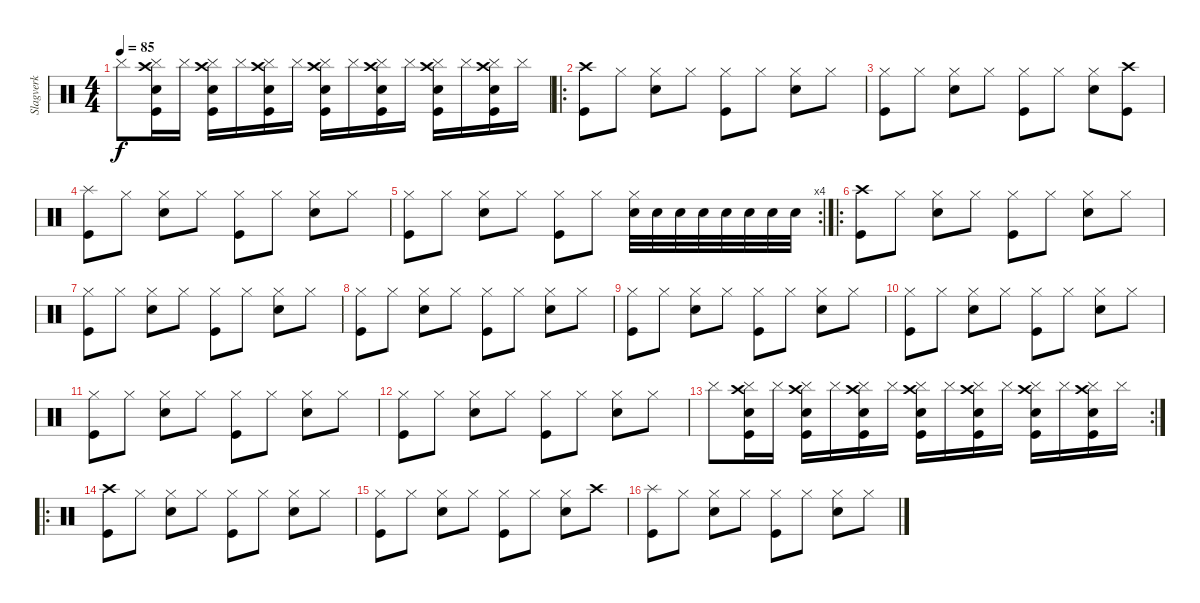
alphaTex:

\track ("Slagverk" "Slagverk") {instrument percussion}
\staff {score}
\articulation defaults
\ts (4 4)
\tempo 85
\clef neutral
\ks c "Cymbal (hit)".8{dy f}
("Cymbal (hit)" "Crash high (hit)" "Electric Snare (hit)" "Kick (hit)").16 "Cymbal (hit)".16 ("Cymbal (hit)" "Crash high (hit)" "Electric Snare (hit)" "Kick (hit)").16 "Cymbal (hit)".16 ("Cymbal (hit)" "Crash high (hit)" "Electric Snare (hit)" "Kick (hit)").16 "Cymbal (hit)".16 ("Cymbal (hit)" "Crash high (hit)" "Electric Snare (hit)" "Kick (hit)").16 "Cymbal (hit)".16 ("Cymbal (hit)" "Crash high (hit)" "Electric Snare (hit)" "Kick (hit)").16 "Cymbal (hit)".16 ("Cymbal (hit)" "Crash high (hit)" "Electric Snare (hit)" "Kick (hit)").16 "Cymbal (hit)".16 ("Cymbal (hit)" "Crash high (hit)" "Electric Snare (hit)" "Kick (hit)").16 "Cymbal (hit)".16 |
\ro
("Crash high (hit)" "Kick (hit)").8 "Hi-Hat (closed)".8 ("Hi-Hat (closed)" "Electric Snare (hit)").8 "Hi-Hat (closed)".8 ("Hi-Hat (closed)" "Kick (hit)").8 "Hi-Hat (closed)".8 ("Hi-Hat (closed)" "Electric Snare (hit)").8 "Hi-Hat (closed)".8 |
("Hi-Hat (closed)" "Kick (hit)").8 "Hi-Hat (closed)".8 ("Hi-Hat (closed)" "Electric Snare (hit)").8 "Hi-Hat (closed)".8 ("Hi-Hat (closed)" "Kick (hit)").8 "Hi-Hat (closed)".8 ("Hi-Hat (closed)" "Electric Snare (hit)").8 ("Crash high (hit)" "Kick (hit)").8 |
("Splash (hit)" "Kick (hit)").8 "Hi-Hat (closed)".8 ("Hi-Hat (closed)" "Electric Snare (hit)").8 "Hi-Hat (closed)".8 ("Hi-Hat (closed)" "Kick (hit)").8 "Hi-Hat (closed)".8 ("Hi-Hat (closed)" "Electric Snare (hit)").8 "Hi-Hat (closed)".8 |
\rc 4
("Hi-Hat (closed)" "Kick (hit)").8 "Hi-Hat (closed)".8 ("Hi-Hat (closed)" "Electric Snare (hit)").8 "Hi-Hat (closed)".8 ("Hi-Hat (closed)" "Kick (hit)").8 "Hi-Hat (closed)".8 ("Hi-Hat (closed)" "Electric Snare (hit)").32 "Electric Snare (hit)".32 "Snare (hit) 2".32 "Electric Snare (hit)".32 "Electric Snare (hit)".32 "Electric Snare (hit)".32 "Electric Snare (hit)".32 "Snare (hit) 2".32 |
\ro
("Crash high (hit)" "Kick (hit)").8 "Hi-Hat (closed)".8 ("Hi-Hat (closed)" "Electric Snare (hit)").8 "Hi-Hat (closed)".8 ("Hi-Hat (closed)" "Kick (hit)").8 "Hi-Hat (closed)".8 ("Hi-Hat (closed)" "Electric Snare (hit)").8 "Hi-Hat (closed)".8 |
("Hi-Hat (closed)" "Kick (hit)").8 "Hi-Hat (closed)".8 ("Hi-Hat (closed)" "Electric Snare (hit)").8 "Hi-Hat (closed)".8 ("Hi-Hat (closed)" "Kick (hit)").8 "Hi-Hat (closed)".8 ("Hi-Hat (closed)" "Electric Snare (hit)").8 "Hi-Hat (closed)".8 |
("Hi-Hat (closed)" "Kick (hit)").8 "Hi-Hat (closed)".8 ("Hi-Hat (closed)" "Electric Snare (hit)").8 "Hi-Hat (closed)".8 ("Hi-Hat (closed)" "Kick (hit)").8 "Hi-Hat (closed)".8 ("Hi-Hat (closed)" "Electric Snare (hit)").8 "Hi-Hat (closed)".8 |
("Hi-Hat (closed)" "Kick (hit)").8 "Hi-Hat (closed)".8 ("Hi-Hat (closed)" "Electric Snare (hit)").8 "Hi-Hat (closed)".8 ("Hi-Hat (closed)" "Kick (hit)").8 "Hi-Hat (closed)".8 ("Hi-Hat (closed)" "Electric Snare (hit)").8 "Hi-Hat (closed)".8 |
("Hi-Hat (closed)" "Kick (hit)").8 "Hi-Hat (closed)".8 ("Hi-Hat (closed)" "Electric Snare (hit)").8 "Hi-Hat (closed)".8 ("Hi-Hat (closed)" "Kick (hit)").8 "Hi-Hat (closed)".8 ("Hi-Hat (closed)" "Electric Snare (hit)").8 "Hi-Hat (closed)".8 |
("Hi-Hat (closed)" "Kick (hit)").8 "Hi-Hat (closed)".8 ("Hi-Hat (closed)" "Electric Snare (hit)").8 "Hi-Hat (closed)".8 ("Hi-Hat (closed)" "Kick (hit)").8 "Hi-Hat (closed)".8 ("Hi-Hat (closed)" "Electric Snare (hit)").8 "Hi-Hat (closed)".8 |
("Hi-Hat (closed)" "Kick (hit)").8 "Hi-Hat (closed)".8 ("Hi-Hat (closed)" "Electric Snare (hit)").8 "Hi-Hat (closed)".8 ("Hi-Hat (closed)" "Kick (hit)").8 "Hi-Hat (closed)".8 ("Hi-Hat (closed)" "Electric Snare (hit)").8 "Hi-Hat (closed)".8 |
\rc 2 "Cymbal (hit)".8
("Cymbal (hit)" "Crash high (hit)" "Electric Snare (hit)" "Kick (hit)").16 "Cymbal (hit)".16 ("Cymbal (hit)" "Crash high (hit)" "Electric Snare (hit)" "Kick (hit)").16 "Cymbal (hit)".16 ("Cymbal (hit)" "Crash high (hit)" "Electric Snare (hit)" "Kick (hit)").16 "Cymbal (hit)".16 ("Cymbal (hit)" "Crash high (hit)" "Electric Snare (hit)" "Kick (hit)").16 "Cymbal (hit)".16 ("Cymbal (hit)" "Crash high (hit)" "Electric Snare (hit)" "Kick (hit)").16 "Cymbal (hit)".16 ("Cymbal (hit)" "Crash high (hit)" "Electric Snare (hit)" "Kick (hit)").16 "Cymbal (hit)".16 ("Cymbal (hit)" "Crash high (hit)" "Electric Snare (hit)" "Kick (hit)").16 "Cymbal (hit)".16 |
\ro
("Crash high (hit)" "Kick (hit)").8 "Hi-Hat (closed)".8 ("Hi-Hat (closed)" "Electric Snare (hit)").8 "Hi-Hat (closed)".8 ("Hi-Hat (closed)" "Kick (hit)").8 "Hi-Hat (closed)".8 ("Hi-Hat (closed)" "Electric Snare (hit)").8 "Hi-Hat (closed)".8 |
("Hi-Hat (closed)" "Kick (hit)").8 "Hi-Hat (closed)".8 ("Hi-Hat (closed)" "Electric Snare (hit)").8 "Hi-Hat (closed)".8 ("Hi-Hat (closed)" "Kick (hit)").8 "Hi-Hat (closed)".8 ("Hi-Hat (closed)" "Electric Snare (hit)").8 "Crash high (hit)".8 |
("Splash (hit)" "Kick (hit)").8 "Hi-Hat (closed)".8 ("Hi-Hat (closed)" "Electric Snare (hit)").8 "Hi-Hat (closed)".8 ("Hi-Hat (closed)" "Kick (hit)").8 "Hi-Hat (closed)".8 ("Hi-Hat (closed)" "Electric Snare (hit)").8 "Hi-Hat (closed)".8
